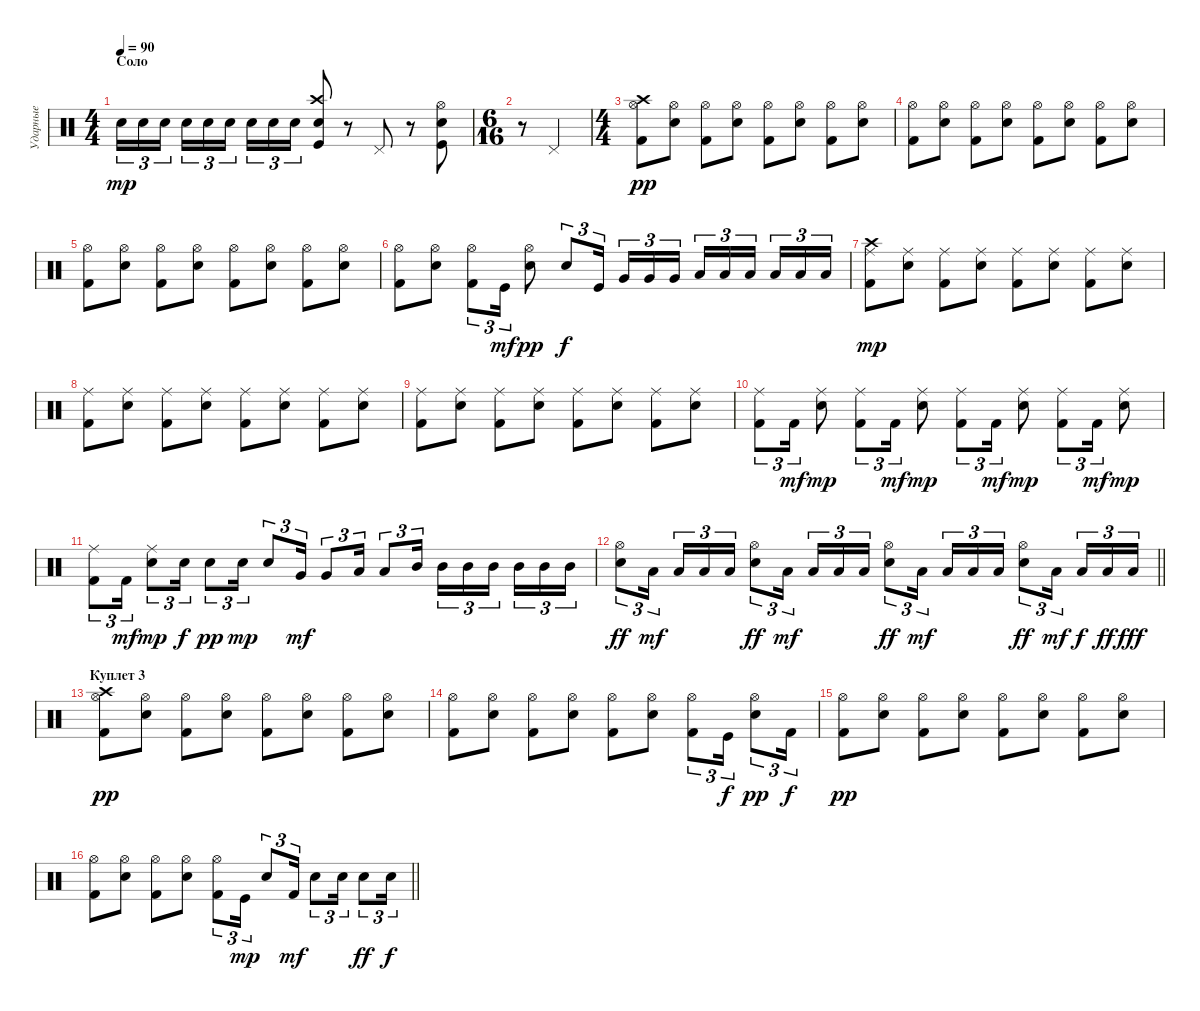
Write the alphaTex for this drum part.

\track ("Ударные" "Ударные") {instrument percussion}
\staff {score}
\articulation defaults
\ts (4 4)
\section ("" "Соло")
\tempo 90
\clef neutral
\ks c "Snare (hit) 2".16{tu (3 2) dy mp} "Snare (hit) 2".16{tu (3 2)} "Snare (hit) 2".16{tu (3 2) beam splitsecondary} "Snare (hit) 2".16{tu (3 2)} "Snare (hit) 2".16{tu (3 2)} "Snare (hit) 2".16{tu (3 2)} "Snare (hit) 2".16{tu (3 2)} "Snare (hit) 2".16{tu (3 2)} "Snare (hit) 2".16{tu (3 2)}
("Crash high (hit)" "Kick (hit)" "Snare (hit) 2").8 r.8 "Pedal Hi-Hat (hit)".8 r.8 ("Hi-Hat (open)" "Snare (hit) 2" "Kick (hit)").8 |
\ts (6 16)
r.8 "Pedal Hi-Hat (hit)".4 |
\ts (4 4)
("Crash high (hit)" "Hi-Hat (open)" "Kick (hit) 2").8{dy pp} ("Hi-Hat (open)" "Snare (hit) 2").8 ("Hi-Hat (open)" "Kick (hit) 2").8 ("Hi-Hat (open)" "Snare (hit) 2").8 ("Hi-Hat (open)" "Kick (hit) 2").8 ("Hi-Hat (open)" "Snare (hit) 2").8 ("Hi-Hat (open)" "Kick (hit) 2").8 ("Hi-Hat (open)" "Snare (hit) 2").8 |
("Hi-Hat (open)" "Kick (hit) 2").8 ("Hi-Hat (open)" "Snare (hit) 2").8 ("Hi-Hat (open)" "Kick (hit) 2").8 ("Hi-Hat (open)" "Snare (hit) 2").8 ("Hi-Hat (open)" "Kick (hit) 2").8 ("Hi-Hat (open)" "Snare (hit) 2").8 ("Hi-Hat (open)" "Kick (hit) 2").8 ("Hi-Hat (open)" "Snare (hit) 2").8 |
("Hi-Hat (open)" "Kick (hit) 2").8 ("Hi-Hat (open)" "Snare (hit) 2").8 ("Hi-Hat (open)" "Kick (hit) 2").8 ("Hi-Hat (open)" "Snare (hit) 2").8 ("Hi-Hat (open)" "Kick (hit) 2").8 ("Hi-Hat (open)" "Snare (hit) 2").8 ("Hi-Hat (open)" "Kick (hit) 2").8 ("Hi-Hat (open)" "Snare (hit) 2").8 |
("Hi-Hat (open)" "Kick (hit) 2").8 ("Hi-Hat (open)" "Snare (hit) 2").8 ("Hi-Hat (open)" "Kick (hit) 2").8{tu (3 2)} "Kick (hit)".16{tu (3 2) dy mf} ("Hi-Hat (open)" "Snare (hit) 2").8{dy pp} "Electric Snare (hit)".8{tu (3 2) dy f} "Kick (hit)".16{tu (3 2) beam splitsecondary} "Very Low Tom (hit)".16{tu (3 2)} "Very Low Tom (hit)".16{tu (3 2)} "Very Low Tom (hit)".16{tu (3 2)} "Low Tom (hit)".16{tu (3 2)} "Low Tom (hit)".16{tu (3 2)} "Low Tom (hit)".16{tu (3 2) beam splitsecondary} "Low Tom (hit)".16{tu (3 2)} "Low Tom (hit)".16{tu (3 2)} "Low Tom (hit)".16{tu (3 2)} |
("Crash high (hit)" "Ride (middle)" "Kick (hit) 2").8{dy mp} ("Ride (middle)" "Snare (hit) 2").8 ("Ride (middle)" "Kick (hit) 2").8 ("Ride (middle)" "Snare (hit) 2").8 ("Ride (middle)" "Kick (hit) 2").8 ("Ride (middle)" "Snare (hit) 2").8 ("Ride (middle)" "Kick (hit) 2").8 ("Ride (middle)" "Snare (hit) 2").8 |
("Ride (middle)" "Kick (hit) 2").8 ("Ride (middle)" "Snare (hit) 2").8 ("Ride (middle)" "Kick (hit) 2").8 ("Ride (middle)" "Snare (hit) 2").8 ("Ride (middle)" "Kick (hit) 2").8 ("Ride (middle)" "Snare (hit) 2").8 ("Ride (middle)" "Kick (hit) 2").8 ("Ride (middle)" "Snare (hit) 2").8 |
("Ride (middle)" "Kick (hit) 2").8 ("Ride (middle)" "Snare (hit) 2").8 ("Ride (middle)" "Kick (hit) 2").8 ("Ride (middle)" "Snare (hit) 2").8 ("Ride (middle)" "Kick (hit) 2").8 ("Ride (middle)" "Snare (hit) 2").8 ("Ride (middle)" "Kick (hit) 2").8 ("Ride (middle)" "Snare (hit) 2").8 |
("Ride (middle)" "Kick (hit) 2").8{tu (3 2)} "Kick (hit) 2".16{tu (3 2) dy mf} ("Ride (middle)" "Snare (hit) 2").8{dy mp} ("Ride (middle)" "Kick (hit) 2").8{tu (3 2)} "Kick (hit) 2".16{tu (3 2) dy mf} ("Ride (middle)" "Snare (hit) 2").8{dy mp} ("Ride (middle)" "Kick (hit) 2").8{tu (3 2)} "Kick (hit) 2".16{tu (3 2) dy mf} ("Ride (middle)" "Snare (hit) 2").8{dy mp} ("Ride (middle)" "Kick (hit) 2").8{tu (3 2)} "Kick (hit) 2".16{tu (3 2) dy mf} ("Ride (middle)" "Snare (hit) 2").8{dy mp} |
("Ride (middle)" "Kick (hit) 2").8{tu (3 2)} "Kick (hit) 2".16{tu (3 2) dy mf} ("Ride (middle)" "Snare (hit) 2").8{tu (3 2) dy mp} "Electric Snare (hit)".16{tu (3 2) dy f} "Electric Snare (hit)".8{tu (3 2) dy pp} "Snare (hit) 2".16{tu (3 2) dy mp} "Snare (hit) 2".8{tu (3 2)} "Very Low Tom (hit)".16{tu (3 2) dy mf} "Very Low Tom (hit)".8{tu (3 2)} "Low Tom (hit)".16{tu (3 2)} "Low Tom (hit)".8{tu (3 2)} "Mid Tom (hit)".16{tu (3 2)} "Mid Tom (hit)".16{tu (3 2)} "Mid Tom (hit)".16{tu (3 2)} "Mid Tom (hit)".16{tu (3 2) beam splitsecondary} "Mid Tom (hit)".16{tu (3 2)} "Mid Tom (hit)".16{tu (3 2)} "Mid Tom (hit)".16{tu (3 2)} |
\barLineRight lightlight
("Hi-Hat (open)" "Snare (hit) 2").8{tu (3 2) dy ff} "Low Tom (hit)".16{tu (3 2) dy mf beam splitsecondary} "Low Tom (hit)".16{tu (3 2)} "Low Tom (hit)".16{tu (3 2)} "Low Tom (hit)".16{tu (3 2)} ("Hi-Hat (open)" "Snare (hit) 2").8{tu (3 2) dy ff} "Low Tom (hit)".16{tu (3 2) dy mf beam splitsecondary} "Low Tom (hit)".16{tu (3 2)} "Low Tom (hit)".16{tu (3 2)} "Low Tom (hit)".16{tu (3 2)} ("Hi-Hat (open)" "Snare (hit) 2").8{tu (3 2) dy ff} "Low Tom (hit)".16{tu (3 2) dy mf beam splitsecondary} "Low Tom (hit)".16{tu (3 2)} "Low Tom (hit)".16{tu (3 2)} "Low Tom (hit)".16{tu (3 2)} ("Hi-Hat (open)" "Snare (hit) 2").8{tu (3 2) dy ff} "Low Tom (hit)".16{tu (3 2) dy mf beam splitsecondary} "Low Tom (hit)".16{tu (3 2) dy f} "Low Tom (hit)".16{tu (3 2) dy ff} "Low Tom (hit)".16{tu (3 2) dy fff} |
\section ("" "Куплет 3")
("Crash high (hit)" "Hi-Hat (open)" "Kick (hit) 2").8{dy pp} ("Hi-Hat (open)" "Snare (hit) 2").8 ("Hi-Hat (open)" "Kick (hit) 2").8 ("Hi-Hat (open)" "Snare (hit) 2").8 ("Hi-Hat (open)" "Kick (hit) 2").8 ("Hi-Hat (open)" "Snare (hit) 2").8 ("Hi-Hat (open)" "Kick (hit) 2").8 ("Hi-Hat (open)" "Snare (hit) 2").8 |
("Hi-Hat (open)" "Kick (hit) 2").8 ("Hi-Hat (open)" "Snare (hit) 2").8 ("Hi-Hat (open)" "Kick (hit) 2").8 ("Hi-Hat (open)" "Snare (hit) 2").8 ("Hi-Hat (open)" "Kick (hit) 2").8 ("Hi-Hat (open)" "Snare (hit) 2").8 ("Hi-Hat (open)" "Kick (hit) 2").8{tu (3 2)} "Kick (hit)".16{tu (3 2) dy f} ("Hi-Hat (open)" "Snare (hit) 2").8{tu (3 2) dy pp} "Kick (hit) 2".16{tu (3 2) dy f} |
("Hi-Hat (open)" "Kick (hit) 2").8{dy pp} ("Hi-Hat (open)" "Snare (hit) 2").8 ("Hi-Hat (open)" "Kick (hit) 2").8 ("Hi-Hat (open)" "Snare (hit) 2").8 ("Hi-Hat (open)" "Kick (hit) 2").8 ("Hi-Hat (open)" "Snare (hit) 2").8 ("Hi-Hat (open)" "Kick (hit) 2").8 ("Hi-Hat (open)" "Snare (hit) 2").8 |
\barLineRight lightlight
("Hi-Hat (open)" "Kick (hit) 2").8 ("Hi-Hat (open)" "Snare (hit) 2").8 ("Hi-Hat (open)" "Kick (hit) 2").8 ("Hi-Hat (open)" "Snare (hit) 2").8 ("Hi-Hat (open)" "Kick (hit) 2").8{tu (3 2)} "Kick (hit)".16{tu (3 2) dy mp} "Snare (hit) 2".8{tu (3 2)} "Kick (hit) 2".16{tu (3 2) dy mf} "Electric Snare (hit)".8{tu (3 2)} "Snare (hit) 2".16{tu (3 2)} "Electric Snare (hit)".8{tu (3 2) dy ff} "Snare (hit) 2".16{tu (3 2) dy f}
